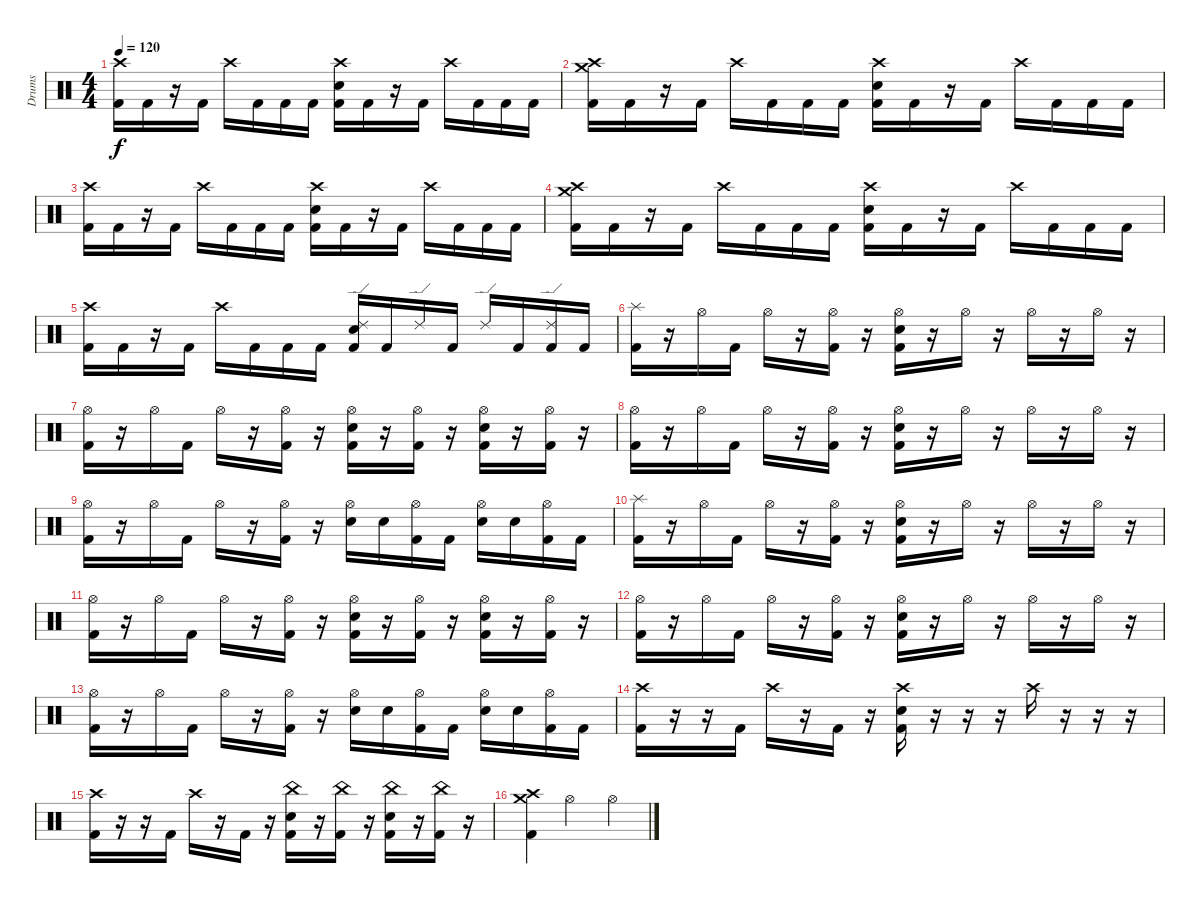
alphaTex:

\track ("Drums" "Drums") {instrument percussion}
\staff {score}
\articulation defaults
\ts (4 4)
\tempo 120
\clef neutral
\ks c
("Crash high (hit)" "Kick (hit) 2").16{dy f} "Kick (hit) 2".16 r.16 "Kick (hit) 2".16 "Crash high (hit)".16 "Kick (hit) 2".16 "Kick (hit) 2".16 "Kick (hit) 2".16 ("Crash high (hit)" "Electric Snare (hit)" "Kick (hit) 2").16 "Kick (hit) 2".16 r.16 "Kick (hit) 2".16 "Crash high (hit)".16 "Kick (hit) 2".16 "Kick (hit) 2".16 "Kick (hit) 2".16 |
("Crash high (hit)" "Crash medium (hit)" "Kick (hit) 2").16 "Kick (hit) 2".16 r.16 "Kick (hit) 2".16 "Crash high (hit)".16 "Kick (hit) 2".16 "Kick (hit) 2".16 "Kick (hit) 2".16 ("Crash high (hit)" "Electric Snare (hit)" "Kick (hit) 2").16 "Kick (hit) 2".16 r.16 "Kick (hit) 2".16 "Crash high (hit)".16 "Kick (hit) 2".16 "Kick (hit) 2".16 "Kick (hit) 2".16 |
("Crash high (hit)" "Kick (hit) 2").16 "Kick (hit) 2".16 r.16 "Kick (hit) 2".16 "Crash high (hit)".16 "Kick (hit) 2".16 "Kick (hit) 2".16 "Kick (hit) 2".16 ("Crash high (hit)" "Electric Snare (hit)" "Kick (hit) 2").16 "Kick (hit) 2".16 r.16 "Kick (hit) 2".16 "Crash high (hit)".16 "Kick (hit) 2".16 "Kick (hit) 2".16 "Kick (hit) 2".16 |
("Crash high (hit)" "Crash medium (hit)" "Kick (hit) 2").16 "Kick (hit) 2".16 r.16 "Kick (hit) 2".16 "Crash high (hit)".16 "Kick (hit) 2".16 "Kick (hit) 2".16 "Kick (hit) 2".16 ("Crash high (hit)" "Electric Snare (hit)" "Kick (hit) 2").16 "Kick (hit) 2".16 r.16 "Kick (hit) 2".16 "Crash high (hit)".16 "Kick (hit) 2".16 "Kick (hit) 2".16 "Kick (hit) 2".16 |
("Crash high (hit)" "Kick (hit) 2").16 "Kick (hit) 2".16 r.16 "Kick (hit) 2".16 "Crash high (hit)".16 "Kick (hit) 2".16 "Kick (hit) 2".16 "Kick (hit) 2".16 ("Ride (edge) 2" "Electric Snare (hit)" "Kick (hit) 2").16 "Kick (hit) 2".16 "Ride (edge) 2".16 "Kick (hit) 2".16 "Ride (edge) 2".16 "Kick (hit) 2".16 ("Ride (edge) 2" "Kick (hit) 2").16 "Kick (hit) 2".16 |
("Splash (hit)" "Kick (hit) 2").16 r.16 "Hi-Hat (open)".16 "Kick (hit) 2".16 "Hi-Hat (open)".16 r.16 ("Hi-Hat (open)" "Kick (hit) 2").16 r.16 ("Hi-Hat (open)" "Electric Snare (hit)" "Kick (hit) 2").16 r.16 "Hi-Hat (open)".16 r.16 "Hi-Hat (open)".16 r.16 "Hi-Hat (open)".16 r.16 |
("Hi-Hat (open)" "Kick (hit) 2").16 r.16 "Hi-Hat (open)".16 "Kick (hit) 2".16 "Hi-Hat (open)".16 r.16 ("Hi-Hat (open)" "Kick (hit) 2").16 r.16 ("Hi-Hat (open)" "Electric Snare (hit)" "Kick (hit) 2").16 r.16 ("Hi-Hat (open)" "Kick (hit) 2").16 r.16 ("Hi-Hat (open)" "Electric Snare (hit)" "Kick (hit) 2").16 r.16 ("Hi-Hat (open)" "Kick (hit) 2").16 r.16 |
("Hi-Hat (open)" "Kick (hit) 2").16 r.16 "Hi-Hat (open)".16 "Kick (hit) 2".16 "Hi-Hat (open)".16 r.16 ("Hi-Hat (open)" "Kick (hit) 2").16 r.16 ("Hi-Hat (open)" "Electric Snare (hit)" "Kick (hit) 2").16 r.16 "Hi-Hat (open)".16 r.16 "Hi-Hat (open)".16 r.16 "Hi-Hat (open)".16 r.16 |
("Hi-Hat (open)" "Kick (hit) 2").16 r.16 "Hi-Hat (open)".16 "Kick (hit) 2".16 "Hi-Hat (open)".16 r.16 ("Hi-Hat (open)" "Kick (hit) 2").16 r.16 ("Hi-Hat (open)" "Electric Snare (hit)").16 "Electric Snare (hit)".16 ("Hi-Hat (open)" "Kick (hit) 2").16 "Kick (hit) 2".16 ("Hi-Hat (open)" "Electric Snare (hit)").16 "Electric Snare (hit)".16 ("Hi-Hat (open)" "Kick (hit) 2").16 "Kick (hit) 2".16 |
("Splash (hit)" "Kick (hit) 2").16 r.16 "Hi-Hat (open)".16 "Kick (hit) 2".16 "Hi-Hat (open)".16 r.16 ("Hi-Hat (open)" "Kick (hit) 2").16 r.16 ("Hi-Hat (open)" "Electric Snare (hit)" "Kick (hit) 2").16 r.16 "Hi-Hat (open)".16 r.16 "Hi-Hat (open)".16 r.16 "Hi-Hat (open)".16 r.16 |
("Hi-Hat (open)" "Kick (hit) 2").16 r.16 "Hi-Hat (open)".16 "Kick (hit) 2".16 "Hi-Hat (open)".16 r.16 ("Hi-Hat (open)" "Kick (hit) 2").16 r.16 ("Hi-Hat (open)" "Electric Snare (hit)" "Kick (hit) 2").16 r.16 ("Hi-Hat (open)" "Kick (hit) 2").16 r.16 ("Hi-Hat (open)" "Electric Snare (hit)" "Kick (hit) 2").16 r.16 ("Hi-Hat (open)" "Kick (hit) 2").16 r.16 |
("Hi-Hat (open)" "Kick (hit) 2").16 r.16 "Hi-Hat (open)".16 "Kick (hit) 2".16 "Hi-Hat (open)".16 r.16 ("Hi-Hat (open)" "Kick (hit) 2").16 r.16 ("Hi-Hat (open)" "Electric Snare (hit)" "Kick (hit) 2").16 r.16 "Hi-Hat (open)".16 r.16 "Hi-Hat (open)".16 r.16 "Hi-Hat (open)".16 r.16 |
("Hi-Hat (open)" "Kick (hit) 2").16 r.16 "Hi-Hat (open)".16 "Kick (hit) 2".16 "Hi-Hat (open)".16 r.16 ("Hi-Hat (open)" "Kick (hit) 2").16 r.16 ("Hi-Hat (open)" "Electric Snare (hit)").16 "Electric Snare (hit)".16 ("Hi-Hat (open)" "Kick (hit) 2").16 "Kick (hit) 2".16 ("Hi-Hat (open)" "Electric Snare (hit)").16 "Electric Snare (hit)".16 ("Hi-Hat (open)" "Kick (hit) 2").16 "Kick (hit) 2".16 |
("Crash high (hit)" "Kick (hit) 2").16 r.16 r.16 "Kick (hit) 2".16 "Crash high (hit)".16 r.16 "Kick (hit) 2".16 r.16 ("Crash high (hit)" "Electric Snare (hit)" "Kick (hit) 2").16 r.16 r.16 r.16 "Crash high (hit)".16 r.16 r.16 r.16 |
("Crash high (hit)" "Kick (hit) 2").16 r.16 r.16 "Kick (hit) 2".16 "Crash high (hit)".16 r.16 "Kick (hit) 2".16 r.16 ("China (hit)" "Electric Snare (hit)" "Kick (hit) 2").16 r.16 ("China (hit)" "Kick (hit) 2").16 r.16 ("China (hit)" "Electric Snare (hit)" "Kick (hit) 2").16 r.16 ("China (hit)" "Kick (hit) 2").16 r.16 |
("Crash high (hit)" "Crash medium (hit)" "Kick (hit) 2").4 "Hi-Hat (open)".2 "Hi-Hat (open)".4
